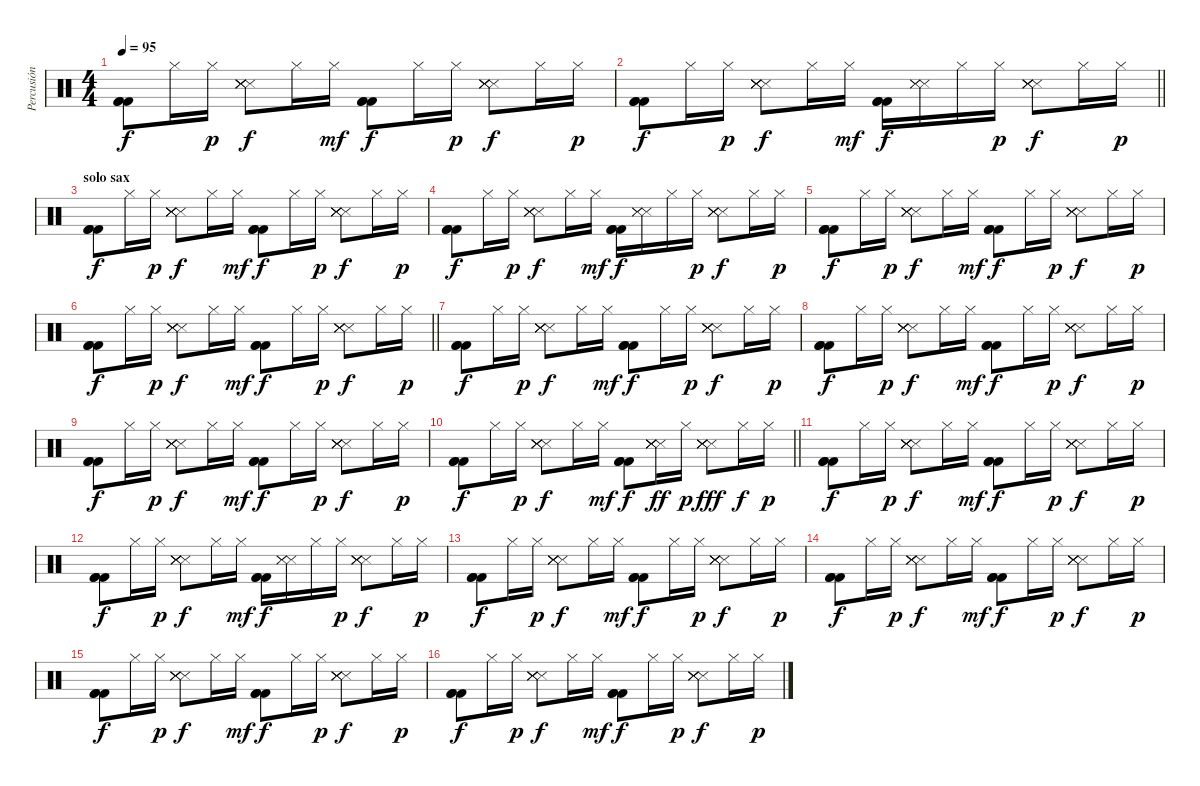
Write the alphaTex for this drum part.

\track ("Percusión" "Percusión") {instrument percussion}
\staff
\articulation defaults
\ts (4 4)
\tempo 95
\clef neutral
\ks c
("Kick (hit) 2" "Kick (hit) 2" "Kick (hit) 2").8{dy f} "Hi-Hat (closed)".16 "Hi-Hat (closed)".16{dy p} ("Metronome (hit)" "Metronome (hit)" "Metronome (hit)" "Metronome (hit)" "Metronome (hit)").8{dy f} "Hi-Hat (closed)".16 "Hi-Hat (closed)".16{dy mf} ("Kick (hit) 2" "Kick (hit) 2" "Kick (hit) 2").8{dy f} "Hi-Hat (closed)".16 "Hi-Hat (closed)".16{dy p} ("Metronome (hit)" "Metronome (hit)" "Metronome (hit)" "Metronome (hit)" "Metronome (hit)").8{dy f} "Hi-Hat (closed)".16 "Hi-Hat (closed)".16{dy p} |
\barLineRight lightlight
("Kick (hit) 2" "Kick (hit) 2" "Kick (hit) 2").8{dy f} "Hi-Hat (closed)".16 "Hi-Hat (closed)".16{dy p} ("Metronome (hit)" "Metronome (hit)" "Metronome (hit)" "Metronome (hit)" "Metronome (hit)").8{dy f} "Hi-Hat (closed)".16 "Hi-Hat (closed)".16{dy mf} ("Kick (hit) 2" "Kick (hit) 2" "Kick (hit) 2").16{dy f} ("Snare (side stick) 3" "Snare (side stick) 3" "Snare (side stick) 3").16 "Hi-Hat (closed)".16 "Hi-Hat (closed)".16{dy p} ("Snare (side stick) 3" "Snare (side stick) 3" "Snare (side stick) 3" "Snare (side stick) 3" "Snare (side stick) 3").8{dy f} "Hi-Hat (closed)".16 "Hi-Hat (closed)".16{dy p} |
\section ("" "solo sax")
("Kick (hit) 2" "Kick (hit) 2" "Kick (hit) 2").8{dy f} "Hi-Hat (closed)".16 "Hi-Hat (closed)".16{dy p} ("Metronome (hit)" "Metronome (hit)" "Metronome (hit)" "Metronome (hit)" "Metronome (hit)").8{dy f} "Hi-Hat (closed)".16 "Hi-Hat (closed)".16{dy mf} ("Kick (hit) 2" "Kick (hit) 2" "Kick (hit) 2").8{dy f} "Hi-Hat (closed)".16 "Hi-Hat (closed)".16{dy p} ("Metronome (hit)" "Metronome (hit)" "Metronome (hit)" "Metronome (hit)" "Metronome (hit)").8{dy f} "Hi-Hat (closed)".16 "Hi-Hat (closed)".16{dy p} |
("Kick (hit) 2" "Kick (hit) 2" "Kick (hit) 2").8{dy f} "Hi-Hat (closed)".16 "Hi-Hat (closed)".16{dy p} ("Metronome (hit)" "Metronome (hit)" "Metronome (hit)" "Metronome (hit)" "Metronome (hit)").8{dy f} "Hi-Hat (closed)".16 "Hi-Hat (closed)".16{dy mf} ("Kick (hit) 2" "Kick (hit) 2" "Kick (hit) 2").16{dy f} ("Snare (side stick) 3" "Snare (side stick) 3" "Snare (side stick) 3").16 "Hi-Hat (closed)".16 "Hi-Hat (closed)".16{dy p} ("Snare (side stick) 3" "Snare (side stick) 3" "Snare (side stick) 3" "Snare (side stick) 3" "Snare (side stick) 3").8{dy f} "Hi-Hat (closed)".16 "Hi-Hat (closed)".16{dy p} |
("Kick (hit) 2" "Kick (hit) 2" "Kick (hit) 2").8{dy f} "Hi-Hat (closed)".16 "Hi-Hat (closed)".16{dy p} ("Metronome (hit)" "Metronome (hit)" "Metronome (hit)" "Metronome (hit)" "Metronome (hit)").8{dy f} "Hi-Hat (closed)".16 "Hi-Hat (closed)".16{dy mf} ("Kick (hit) 2" "Kick (hit) 2" "Kick (hit) 2").8{dy f} "Hi-Hat (closed)".16 "Hi-Hat (closed)".16{dy p} ("Metronome (hit)" "Metronome (hit)" "Metronome (hit)" "Metronome (hit)" "Metronome (hit)").8{dy f} "Hi-Hat (closed)".16 "Hi-Hat (closed)".16{dy p} |
\barLineRight lightlight
("Kick (hit) 2" "Kick (hit) 2" "Kick (hit) 2").8{dy f} "Hi-Hat (closed)".16 "Hi-Hat (closed)".16{dy p} ("Metronome (hit)" "Metronome (hit)" "Metronome (hit)" "Metronome (hit)" "Metronome (hit)").8{dy f} "Hi-Hat (closed)".16 "Hi-Hat (closed)".16{dy mf} ("Kick (hit) 2" "Kick (hit) 2" "Kick (hit) 2").8{dy f} "Hi-Hat (closed)".16 "Hi-Hat (closed)".16{dy p} ("Metronome (hit)" "Metronome (hit)" "Metronome (hit)" "Metronome (hit)" "Metronome (hit)").8{dy f} "Hi-Hat (closed)".16 "Hi-Hat (closed)".16{dy p} |
("Kick (hit) 2" "Kick (hit) 2" "Kick (hit) 2").8{dy f} "Hi-Hat (closed)".16 "Hi-Hat (closed)".16{dy p} ("Metronome (hit)" "Metronome (hit)" "Metronome (hit)" "Metronome (hit)" "Metronome (hit)").8{dy f} "Hi-Hat (closed)".16 "Hi-Hat (closed)".16{dy mf} ("Kick (hit) 2" "Kick (hit) 2" "Kick (hit) 2").8{dy f} "Hi-Hat (closed)".16 "Hi-Hat (closed)".16{dy p} ("Metronome (hit)" "Metronome (hit)" "Metronome (hit)" "Metronome (hit)" "Metronome (hit)").8{dy f} "Hi-Hat (closed)".16 "Hi-Hat (closed)".16{dy p} |
("Kick (hit) 2" "Kick (hit) 2" "Kick (hit) 2").8{dy f} "Hi-Hat (closed)".16 "Hi-Hat (closed)".16{dy p} ("Metronome (hit)" "Metronome (hit)" "Metronome (hit)" "Metronome (hit)" "Metronome (hit)").8{dy f} "Hi-Hat (closed)".16 "Hi-Hat (closed)".16{dy mf} ("Kick (hit) 2" "Kick (hit) 2" "Kick (hit) 2").8{dy f} "Hi-Hat (closed)".16 "Hi-Hat (closed)".16{dy p} ("Metronome (hit)" "Metronome (hit)" "Metronome (hit)" "Metronome (hit)" "Metronome (hit)").8{dy f} "Hi-Hat (closed)".16 "Hi-Hat (closed)".16{dy p} |
("Kick (hit) 2" "Kick (hit) 2" "Kick (hit) 2").8{dy f} "Hi-Hat (closed)".16 "Hi-Hat (closed)".16{dy p} ("Metronome (hit)" "Metronome (hit)" "Metronome (hit)" "Metronome (hit)" "Metronome (hit)").8{dy f} "Hi-Hat (closed)".16 "Hi-Hat (closed)".16{dy mf} ("Kick (hit) 2" "Kick (hit) 2" "Kick (hit) 2").8{dy f} "Hi-Hat (closed)".16 "Hi-Hat (closed)".16{dy p} ("Metronome (hit)" "Metronome (hit)" "Metronome (hit)" "Metronome (hit)" "Metronome (hit)").8{dy f} "Hi-Hat (closed)".16 "Hi-Hat (closed)".16{dy p} |
\barLineRight lightlight
("Kick (hit) 2" "Kick (hit) 2" "Kick (hit) 2").8{dy f} "Hi-Hat (closed)".16 "Hi-Hat (closed)".16{dy p} ("Metronome (hit)" "Metronome (hit)" "Metronome (hit)" "Metronome (hit)" "Metronome (hit)").8{dy f} "Hi-Hat (closed)".16 "Hi-Hat (closed)".16{dy mf} ("Kick (hit) 2" "Kick (hit) 2" "Kick (hit) 2").8{dy f} ("Metronome (hit)" "Metronome (hit)" "Metronome (hit)" "Metronome (hit)" "Metronome (hit)").16{dy ff} "Hi-Hat (closed)".16{dy p} ("Metronome (hit)" "Metronome (hit)" "Metronome (hit)" "Metronome (hit)" "Metronome (hit)").8{dy fff} "Hi-Hat (closed)".16{dy f} "Hi-Hat (closed)".16{dy p} |
("Kick (hit) 2" "Kick (hit) 2" "Kick (hit) 2").8{dy f} "Hi-Hat (closed)".16 "Hi-Hat (closed)".16{dy p} ("Metronome (hit)" "Metronome (hit)" "Metronome (hit)" "Metronome (hit)" "Metronome (hit)").8{dy f} "Hi-Hat (closed)".16 "Hi-Hat (closed)".16{dy mf} ("Kick (hit) 2" "Kick (hit) 2" "Kick (hit) 2").8{dy f} "Hi-Hat (closed)".16 "Hi-Hat (closed)".16{dy p} ("Metronome (hit)" "Metronome (hit)" "Metronome (hit)" "Metronome (hit)" "Metronome (hit)").8{dy f} "Hi-Hat (closed)".16 "Hi-Hat (closed)".16{dy p} |
("Kick (hit) 2" "Kick (hit) 2" "Kick (hit) 2").8{dy f} "Hi-Hat (closed)".16 "Hi-Hat (closed)".16{dy p} ("Metronome (hit)" "Metronome (hit)" "Metronome (hit)" "Metronome (hit)" "Metronome (hit)").8{dy f} "Hi-Hat (closed)".16 "Hi-Hat (closed)".16{dy mf} ("Kick (hit) 2" "Kick (hit) 2" "Kick (hit) 2").16{dy f} ("Snare (side stick) 3" "Snare (side stick) 3" "Snare (side stick) 3").16 "Hi-Hat (closed)".16 "Hi-Hat (closed)".16{dy p} ("Snare (side stick) 3" "Snare (side stick) 3" "Snare (side stick) 3" "Snare (side stick) 3" "Snare (side stick) 3").8{dy f} "Hi-Hat (closed)".16 "Hi-Hat (closed)".16{dy p} |
("Kick (hit) 2" "Kick (hit) 2" "Kick (hit) 2").8{dy f} "Hi-Hat (closed)".16 "Hi-Hat (closed)".16{dy p} ("Metronome (hit)" "Metronome (hit)" "Metronome (hit)" "Metronome (hit)" "Metronome (hit)").8{dy f} "Hi-Hat (closed)".16 "Hi-Hat (closed)".16{dy mf} ("Kick (hit) 2" "Kick (hit) 2" "Kick (hit) 2").8{dy f} "Hi-Hat (closed)".16 "Hi-Hat (closed)".16{dy p} ("Metronome (hit)" "Metronome (hit)" "Metronome (hit)" "Metronome (hit)" "Metronome (hit)").8{dy f} "Hi-Hat (closed)".16 "Hi-Hat (closed)".16{dy p} |
("Kick (hit) 2" "Kick (hit) 2" "Kick (hit) 2").8{dy f} "Hi-Hat (closed)".16 "Hi-Hat (closed)".16{dy p} ("Metronome (hit)" "Metronome (hit)" "Metronome (hit)" "Metronome (hit)" "Metronome (hit)").8{dy f} "Hi-Hat (closed)".16 "Hi-Hat (closed)".16{dy mf} ("Kick (hit) 2" "Kick (hit) 2" "Kick (hit) 2").8{dy f} "Hi-Hat (closed)".16 "Hi-Hat (closed)".16{dy p} ("Metronome (hit)" "Metronome (hit)" "Metronome (hit)" "Metronome (hit)" "Metronome (hit)").8{dy f} "Hi-Hat (closed)".16 "Hi-Hat (closed)".16{dy p} |
("Kick (hit) 2" "Kick (hit) 2" "Kick (hit) 2").8{dy f} "Hi-Hat (closed)".16 "Hi-Hat (closed)".16{dy p} ("Metronome (hit)" "Metronome (hit)" "Metronome (hit)" "Metronome (hit)" "Metronome (hit)").8{dy f} "Hi-Hat (closed)".16 "Hi-Hat (closed)".16{dy mf} ("Kick (hit) 2" "Kick (hit) 2" "Kick (hit) 2").8{dy f} "Hi-Hat (closed)".16 "Hi-Hat (closed)".16{dy p} ("Metronome (hit)" "Metronome (hit)" "Metronome (hit)" "Metronome (hit)" "Metronome (hit)").8{dy f} "Hi-Hat (closed)".16 "Hi-Hat (closed)".16{dy p} |
("Kick (hit) 2" "Kick (hit) 2" "Kick (hit) 2").8{dy f} "Hi-Hat (closed)".16 "Hi-Hat (closed)".16{dy p} ("Metronome (hit)" "Metronome (hit)" "Metronome (hit)" "Metronome (hit)" "Metronome (hit)").8{dy f} "Hi-Hat (closed)".16 "Hi-Hat (closed)".16{dy mf} ("Kick (hit) 2" "Kick (hit) 2" "Kick (hit) 2").8{dy f} "Hi-Hat (closed)".16 "Hi-Hat (closed)".16{dy p} ("Metronome (hit)" "Metronome (hit)" "Metronome (hit)" "Metronome (hit)" "Metronome (hit)").8{dy f} "Hi-Hat (closed)".16 "Hi-Hat (closed)".16{dy p}
